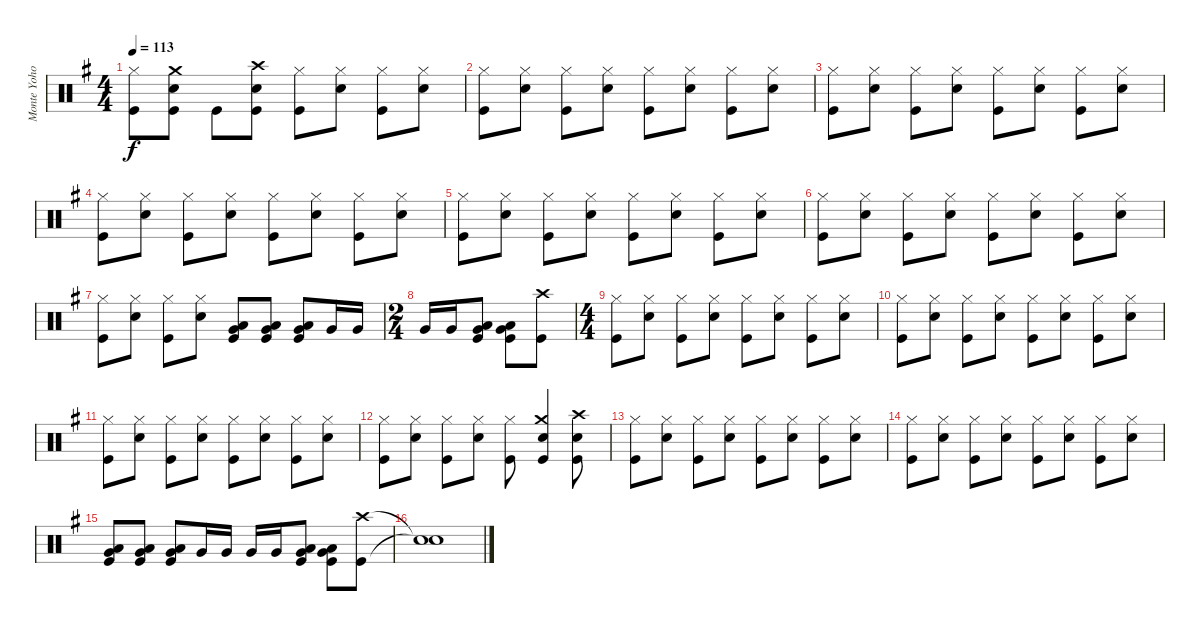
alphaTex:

\track ("Monte Yoho Drums" "Monte Yoho") {instrument percussion}
\staff {score}
\articulation defaults
\ts (4 4)
\tempo 113
\clef neutral
\ks eminor
("Hi-Hat (closed)" "Kick (hit)").8{dy f} ("Crash medium (hit)" "Snare (hit) 2" "Kick (hit)").8 "Kick (hit)".8 ("Crash high (hit)" "Snare (hit) 2" "Kick (hit)").8 ("Hi-Hat (closed)" "Kick (hit)").8 ("Hi-Hat (closed)" "Snare (hit) 2").8 ("Hi-Hat (closed)" "Kick (hit)").8 ("Hi-Hat (closed)" "Snare (hit) 2").8 |
("Hi-Hat (closed)" "Kick (hit)").8 ("Hi-Hat (closed)" "Snare (hit) 2").8 ("Hi-Hat (closed)" "Kick (hit)").8 ("Hi-Hat (closed)" "Snare (hit) 2").8 ("Hi-Hat (closed)" "Kick (hit)").8 ("Hi-Hat (closed)" "Snare (hit) 2").8 ("Hi-Hat (closed)" "Kick (hit)").8 ("Hi-Hat (closed)" "Snare (hit) 2").8 |
("Hi-Hat (closed)" "Kick (hit)").8 ("Hi-Hat (closed)" "Snare (hit) 2").8 ("Hi-Hat (closed)" "Kick (hit)").8 ("Hi-Hat (closed)" "Snare (hit) 2").8 ("Hi-Hat (closed)" "Kick (hit)").8 ("Hi-Hat (closed)" "Snare (hit) 2").8 ("Hi-Hat (closed)" "Kick (hit)").8 ("Hi-Hat (closed)" "Snare (hit) 2").8 |
("Hi-Hat (closed)" "Kick (hit)").8 ("Hi-Hat (closed)" "Snare (hit) 2").8 ("Hi-Hat (closed)" "Kick (hit)").8 ("Hi-Hat (closed)" "Snare (hit) 2").8 ("Hi-Hat (closed)" "Kick (hit)").8 ("Hi-Hat (closed)" "Snare (hit) 2").8 ("Hi-Hat (closed)" "Kick (hit)").8 ("Hi-Hat (closed)" "Snare (hit) 2").8 |
("Hi-Hat (closed)" "Kick (hit)").8 ("Hi-Hat (closed)" "Snare (hit) 2").8 ("Hi-Hat (closed)" "Kick (hit)").8 ("Hi-Hat (closed)" "Snare (hit) 2").8 ("Hi-Hat (closed)" "Kick (hit)").8 ("Hi-Hat (closed)" "Snare (hit) 2").8 ("Hi-Hat (closed)" "Kick (hit)").8 ("Hi-Hat (closed)" "Snare (hit) 2").8 |
("Hi-Hat (closed)" "Kick (hit)").8 ("Hi-Hat (closed)" "Snare (hit) 2").8 ("Hi-Hat (closed)" "Kick (hit)").8 ("Hi-Hat (closed)" "Snare (hit) 2").8 ("Hi-Hat (closed)" "Kick (hit)").8 ("Hi-Hat (closed)" "Snare (hit) 2").8 ("Hi-Hat (closed)" "Kick (hit)").8 ("Hi-Hat (closed)" "Snare (hit) 2").8 |
("Hi-Hat (closed)" "Kick (hit)").8 ("Hi-Hat (closed)" "Snare (hit) 2").8 ("Hi-Hat (closed)" "Kick (hit)").8 ("Hi-Hat (closed)" "Snare (hit) 2").8 ("Very Low Tom (hit)" "Low Floor Tom (hit)" "Kick (hit)").8 ("Very Low Tom (hit)" "Low Floor Tom (hit)" "Kick (hit)").8 ("Very Low Tom (hit)" "Low Floor Tom (hit)" "Kick (hit)").8 "Very Low Tom (hit)".16 "Very Low Tom (hit)".16 |
\ts (2 4)
"Very Low Tom (hit)".16 "Very Low Tom (hit)".16 ("Very Low Tom (hit)" "Low Floor Tom (hit)" "Kick (hit)").8 ("Very Low Tom (hit)" "Low Floor Tom (hit)" "Kick (hit)").8 ("Crash high (hit)" "Kick (hit)").8 |
\ts (4 4)
("Hi-Hat (closed)" "Kick (hit)").8 ("Hi-Hat (closed)" "Snare (hit) 2").8 ("Hi-Hat (closed)" "Kick (hit)").8 ("Hi-Hat (closed)" "Snare (hit) 2").8 ("Hi-Hat (closed)" "Kick (hit)").8 ("Hi-Hat (closed)" "Snare (hit) 2").8 ("Hi-Hat (closed)" "Kick (hit)").8 ("Hi-Hat (closed)" "Snare (hit) 2").8 |
("Hi-Hat (closed)" "Kick (hit)").8 ("Hi-Hat (closed)" "Snare (hit) 2").8 ("Hi-Hat (closed)" "Kick (hit)").8 ("Hi-Hat (closed)" "Snare (hit) 2").8 ("Hi-Hat (closed)" "Kick (hit)").8 ("Hi-Hat (closed)" "Snare (hit) 2").8 ("Hi-Hat (closed)" "Kick (hit)").8 ("Hi-Hat (closed)" "Snare (hit) 2").8 |
("Hi-Hat (closed)" "Kick (hit)").8 ("Hi-Hat (closed)" "Snare (hit) 2").8 ("Hi-Hat (closed)" "Kick (hit)").8 ("Hi-Hat (closed)" "Snare (hit) 2").8 ("Hi-Hat (closed)" "Kick (hit)").8 ("Hi-Hat (closed)" "Snare (hit) 2").8 ("Hi-Hat (closed)" "Kick (hit)").8 ("Hi-Hat (closed)" "Snare (hit) 2").8 |
("Hi-Hat (closed)" "Kick (hit)").8 ("Hi-Hat (closed)" "Snare (hit) 2").8 ("Hi-Hat (closed)" "Kick (hit)").8 ("Hi-Hat (closed)" "Snare (hit) 2").8 ("Hi-Hat (closed)" "Kick (hit)").8 ("Crash medium (hit)" "Snare (hit) 2" "Kick (hit)").4 ("Crash high (hit)" "Snare (hit) 2" "Kick (hit)").8 |
("Hi-Hat (closed)" "Kick (hit)").8 ("Hi-Hat (closed)" "Snare (hit) 2").8 ("Hi-Hat (closed)" "Kick (hit)").8 ("Hi-Hat (closed)" "Snare (hit) 2").8 ("Hi-Hat (closed)" "Kick (hit)").8 ("Hi-Hat (closed)" "Snare (hit) 2").8 ("Hi-Hat (closed)" "Kick (hit)").8 ("Hi-Hat (closed)" "Snare (hit) 2").8 |
("Hi-Hat (closed)" "Kick (hit)").8 ("Hi-Hat (closed)" "Snare (hit) 2").8 ("Hi-Hat (closed)" "Kick (hit)").8 ("Hi-Hat (closed)" "Snare (hit) 2").8 ("Hi-Hat (closed)" "Kick (hit)").8 ("Hi-Hat (closed)" "Snare (hit) 2").8 ("Hi-Hat (closed)" "Kick (hit)").8 ("Hi-Hat (closed)" "Snare (hit) 2").8 |
("Very Low Tom (hit)" "Low Floor Tom (hit)" "Kick (hit)").8 ("Very Low Tom (hit)" "Low Floor Tom (hit)" "Kick (hit)").8 ("Very Low Tom (hit)" "Low Floor Tom (hit)" "Kick (hit)").8 "Very Low Tom (hit)".16 "Very Low Tom (hit)".16 "Very Low Tom (hit)".16 "Very Low Tom (hit)".16 ("Very Low Tom (hit)" "Low Floor Tom (hit)" "Kick (hit)").8 ("Very Low Tom (hit)" "Low Floor Tom (hit)" "Kick (hit)").8 ("Crash high (hit)" "Kick (hit)").8 |
("Snare (hit)"{t} "Snare (hit)"{t}).1
